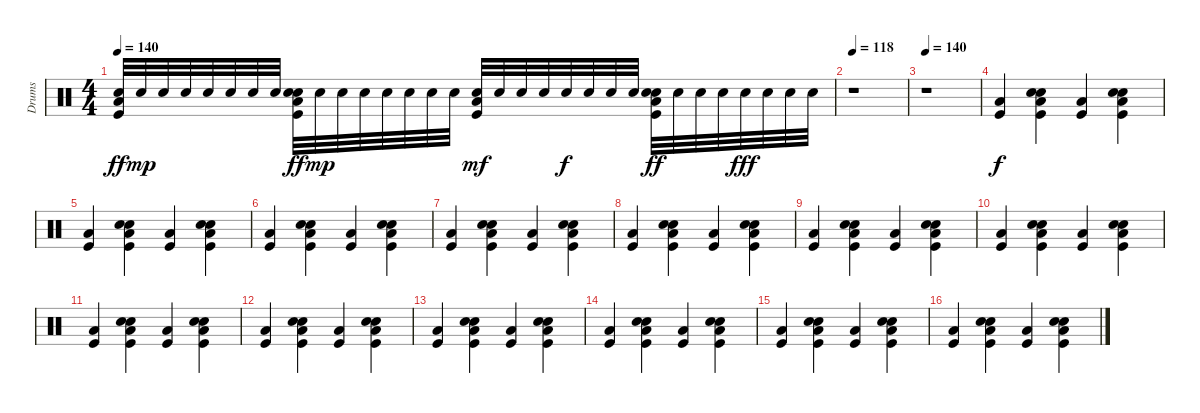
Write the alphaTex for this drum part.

\track ("Drums" "Drums") {instrument percussion}
\staff {score}
\articulation defaults
\ts (4 4)
\tempo 140
\clef neutral
\ks c
("Snare (hit) 2" "Low Floor Tom (hit)" "Kick (hit)").32{dy ff} "Snare (hit) 2".32{dy mp} "Snare (hit) 2".32 "Snare (hit) 2".32 "Snare (hit) 2".32 "Snare (hit) 2".32 "Snare (hit) 2".32 "Snare (hit) 2".32 ("Hand Clap (hit)" "Snare (hit) 2" "Low Floor Tom (hit)" "Kick (hit)").32{dy ff} "Snare (hit) 2".32{dy mp} "Snare (hit) 2".32 "Snare (hit) 2".32 "Snare (hit) 2".32 "Snare (hit) 2".32 "Snare (hit) 2".32 "Snare (hit) 2".32 ("Snare (hit) 2" "Low Floor Tom (hit)" "Kick (hit)").32{dy mf} "Snare (hit) 2".32 "Snare (hit) 2".32 "Snare (hit) 2".32 "Snare (hit) 2".32{dy f} "Snare (hit) 2".32 "Snare (hit) 2".32 "Snare (hit) 2".32 ("Hand Clap (hit)" "Snare (hit) 2" "Low Floor Tom (hit)" "Kick (hit)").32{dy ff} "Snare (hit) 2".32 "Snare (hit) 2".32 "Snare (hit) 2".32 "Snare (hit) 2".32{dy fff} "Snare (hit) 2".32 "Snare (hit) 2".32 "Snare (hit) 2".32 |
\tempo 118
r.1 |
\tempo 140
r.1{volume 16} |
("Low Floor Tom (hit)" "Kick (hit)").4{dy f} ("Hand Clap (hit)" "Snare (hit) 2" "Low Floor Tom (hit)" "Kick (hit)").4 ("Low Floor Tom (hit)" "Kick (hit)").4 ("Hand Clap (hit)" "Snare (hit) 2" "Low Floor Tom (hit)" "Kick (hit)").4 |
("Low Floor Tom (hit)" "Kick (hit)").4 ("Hand Clap (hit)" "Snare (hit) 2" "Low Floor Tom (hit)" "Kick (hit)").4 ("Low Floor Tom (hit)" "Kick (hit)").4 ("Hand Clap (hit)" "Snare (hit) 2" "Low Floor Tom (hit)" "Kick (hit)").4 |
("Low Floor Tom (hit)" "Kick (hit)").4 ("Hand Clap (hit)" "Snare (hit) 2" "Low Floor Tom (hit)" "Kick (hit)").4 ("Low Floor Tom (hit)" "Kick (hit)").4 ("Hand Clap (hit)" "Snare (hit) 2" "Low Floor Tom (hit)" "Kick (hit)").4 |
("Low Floor Tom (hit)" "Kick (hit)").4 ("Hand Clap (hit)" "Snare (hit) 2" "Low Floor Tom (hit)" "Kick (hit)").4 ("Low Floor Tom (hit)" "Kick (hit)").4 ("Hand Clap (hit)" "Snare (hit) 2" "Low Floor Tom (hit)" "Kick (hit)").4 |
("Low Floor Tom (hit)" "Kick (hit)").4 ("Hand Clap (hit)" "Snare (hit) 2" "Low Floor Tom (hit)" "Kick (hit)").4 ("Low Floor Tom (hit)" "Kick (hit)").4 ("Hand Clap (hit)" "Snare (hit) 2" "Low Floor Tom (hit)" "Kick (hit)").4 |
("Low Floor Tom (hit)" "Kick (hit)").4 ("Hand Clap (hit)" "Snare (hit) 2" "Low Floor Tom (hit)" "Kick (hit)").4 ("Low Floor Tom (hit)" "Kick (hit)").4 ("Hand Clap (hit)" "Snare (hit) 2" "Low Floor Tom (hit)" "Kick (hit)").4 |
("Low Floor Tom (hit)" "Kick (hit)").4 ("Hand Clap (hit)" "Snare (hit) 2" "Low Floor Tom (hit)" "Kick (hit)").4 ("Low Floor Tom (hit)" "Kick (hit)").4 ("Hand Clap (hit)" "Snare (hit) 2" "Low Floor Tom (hit)" "Kick (hit)").4 |
("Low Floor Tom (hit)" "Kick (hit)").4 ("Hand Clap (hit)" "Snare (hit) 2" "Low Floor Tom (hit)" "Kick (hit)").4 ("Low Floor Tom (hit)" "Kick (hit)").4 ("Hand Clap (hit)" "Snare (hit) 2" "Low Floor Tom (hit)" "Kick (hit)").4 |
("Low Floor Tom (hit)" "Kick (hit)").4 ("Hand Clap (hit)" "Snare (hit) 2" "Low Floor Tom (hit)" "Kick (hit)").4 ("Low Floor Tom (hit)" "Kick (hit)").4 ("Hand Clap (hit)" "Snare (hit) 2" "Low Floor Tom (hit)" "Kick (hit)").4 |
("Low Floor Tom (hit)" "Kick (hit)").4 ("Hand Clap (hit)" "Snare (hit) 2" "Low Floor Tom (hit)" "Kick (hit)").4 ("Low Floor Tom (hit)" "Kick (hit)").4 ("Hand Clap (hit)" "Snare (hit) 2" "Low Floor Tom (hit)" "Kick (hit)").4 |
("Low Floor Tom (hit)" "Kick (hit)").4 ("Hand Clap (hit)" "Snare (hit) 2" "Low Floor Tom (hit)" "Kick (hit)").4 ("Low Floor Tom (hit)" "Kick (hit)").4 ("Hand Clap (hit)" "Snare (hit) 2" "Low Floor Tom (hit)" "Kick (hit)").4 |
("Low Floor Tom (hit)" "Kick (hit)").4 ("Hand Clap (hit)" "Snare (hit) 2" "Low Floor Tom (hit)" "Kick (hit)").4 ("Low Floor Tom (hit)" "Kick (hit)").4 ("Hand Clap (hit)" "Snare (hit) 2" "Low Floor Tom (hit)" "Kick (hit)").4 |
("Low Floor Tom (hit)" "Kick (hit)").4 ("Hand Clap (hit)" "Snare (hit) 2" "Low Floor Tom (hit)" "Kick (hit)").4 ("Low Floor Tom (hit)" "Kick (hit)").4 ("Hand Clap (hit)" "Snare (hit) 2" "Low Floor Tom (hit)" "Kick (hit)").4
